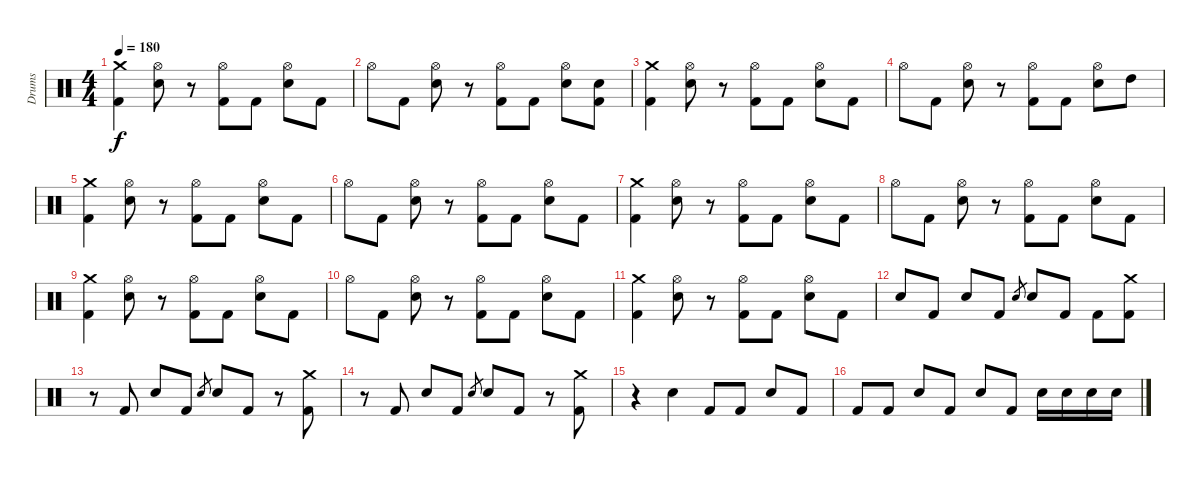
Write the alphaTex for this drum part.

\track ("Drums" "Drums") {instrument percussion}
\staff {score}
\articulation defaults
\ts (4 4)
\tempo 180
\clef neutral
\ks c
("Crash medium (hit)" "Kick (hit) 2").4{dy f} ("Hi-Hat (open)" "Electric Snare (hit)").8 r.8 ("Hi-Hat (open)" "Kick (hit) 2").8 "Kick (hit) 2".8 ("Hi-Hat (open)" "Electric Snare (hit)").8 "Kick (hit) 2".8 |
"Hi-Hat (open)".8 "Kick (hit) 2".8 ("Hi-Hat (open)" "Electric Snare (hit)").8 r.8 ("Hi-Hat (open)" "Kick (hit) 2").8 "Kick (hit) 2".8 ("Hi-Hat (open)" "Electric Snare (hit)").8 ("Electric Snare (hit)" "Kick (hit) 2").8 |
("Crash medium (hit)" "Kick (hit) 2").4 ("Hi-Hat (open)" "Electric Snare (hit)").8 r.8 ("Hi-Hat (open)" "Kick (hit) 2").8 "Kick (hit) 2".8 ("Hi-Hat (open)" "Electric Snare (hit)").8 "Kick (hit) 2".8 |
"Hi-Hat (open)".8 "Kick (hit) 2".8 ("Hi-Hat (open)" "Electric Snare (hit)").8 r.8 ("Hi-Hat (open)" "Kick (hit) 2").8 "Kick (hit) 2".8 ("Hi-Hat (open)" "Electric Snare (hit)").8 "High Tom (hit)".8 |
("Crash medium (hit)" "Kick (hit) 2").4 ("Hi-Hat (open)" "Electric Snare (hit)").8 r.8 ("Hi-Hat (open)" "Kick (hit) 2").8 "Kick (hit) 2".8 ("Hi-Hat (open)" "Electric Snare (hit)").8 "Kick (hit) 2".8 |
"Hi-Hat (open)".8 "Kick (hit) 2".8 ("Hi-Hat (open)" "Electric Snare (hit)").8 r.8 ("Hi-Hat (open)" "Kick (hit) 2").8 "Kick (hit) 2".8 ("Hi-Hat (open)" "Electric Snare (hit)").8 "Kick (hit) 2".8 |
("Crash medium (hit)" "Kick (hit) 2").4 ("Hi-Hat (open)" "Electric Snare (hit)").8 r.8 ("Hi-Hat (open)" "Kick (hit) 2").8 "Kick (hit) 2".8 ("Hi-Hat (open)" "Electric Snare (hit)").8 "Kick (hit) 2".8 |
"Hi-Hat (open)".8 "Kick (hit) 2".8 ("Hi-Hat (open)" "Electric Snare (hit)").8 r.8 ("Hi-Hat (open)" "Kick (hit) 2").8 "Kick (hit) 2".8 ("Hi-Hat (open)" "Electric Snare (hit)").8 "Kick (hit) 2".8 |
("Crash medium (hit)" "Kick (hit) 2").4 ("Hi-Hat (open)" "Electric Snare (hit)").8 r.8 ("Hi-Hat (open)" "Kick (hit) 2").8 "Kick (hit) 2".8 ("Hi-Hat (open)" "Electric Snare (hit)").8 "Kick (hit) 2".8 |
"Hi-Hat (open)".8 "Kick (hit) 2".8 ("Hi-Hat (open)" "Electric Snare (hit)").8 r.8 ("Hi-Hat (open)" "Kick (hit) 2").8 "Kick (hit) 2".8 ("Hi-Hat (open)" "Electric Snare (hit)").8 "Kick (hit) 2".8 |
("Crash medium (hit)" "Kick (hit) 2").4 ("Hi-Hat (open)" "Electric Snare (hit)").8 r.8 ("Hi-Hat (open)" "Kick (hit) 2").8 "Kick (hit) 2".8 ("Hi-Hat (open)" "Electric Snare (hit)").8 "Kick (hit) 2".8 |
"Electric Snare (hit)".8 "Kick (hit) 2".8 "Electric Snare (hit)".8 "Kick (hit) 2".8 "Electric Snare (hit)".8{gr} "Electric Snare (hit)".8 "Kick (hit) 2".8 "Kick (hit) 2".8 ("Crash medium (hit)" "Kick (hit) 2").8 |
r.8 "Kick (hit) 2".8 "Electric Snare (hit)".8 "Kick (hit) 2".8 "Electric Snare (hit)".8{gr} "Electric Snare (hit)".8 "Kick (hit) 2".8 r.8 ("Crash medium (hit)" "Kick (hit) 2").8 |
r.8 "Kick (hit) 2".8 "Electric Snare (hit)".8 "Kick (hit) 2".8 "Electric Snare (hit)".8{gr} "Electric Snare (hit)".8 "Kick (hit) 2".8 r.8 ("Crash medium (hit)" "Kick (hit) 2").8 |
r.4 "Electric Snare (hit)".4 "Kick (hit) 2".8 "Kick (hit) 2".8 "Electric Snare (hit)".8 "Kick (hit) 2".8 |
"Kick (hit) 2".8 "Kick (hit) 2".8 "Electric Snare (hit)".8 "Kick (hit) 2".8 "Electric Snare (hit)".8 "Kick (hit) 2".8 "Electric Snare (hit)".16 "Electric Snare (hit)".16 "Electric Snare (hit)".16 "Electric Snare (hit)".16
